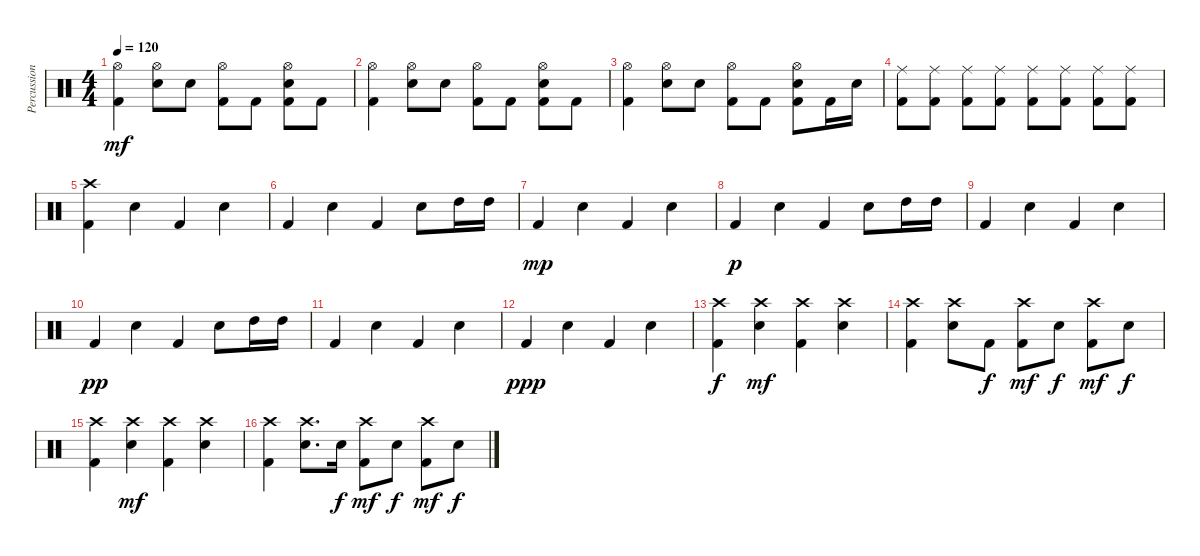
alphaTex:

\track ("Percussion" "Percussion") {instrument percussion}
\staff {score}
\articulation defaults
\ts (4 4)
\tempo 120
\clef neutral
\ks c
("Hi-Hat (open)" "Kick (hit) 2").4{dy mf} ("Hi-Hat (open)" "Snare (hit) 2").8 "Snare (hit) 2".8 ("Hi-Hat (open)" "Kick (hit) 2").8 "Kick (hit) 2".8 ("Hi-Hat (open)" "Snare (hit) 2" "Kick (hit) 2").8 "Kick (hit) 2".8 |
("Hi-Hat (open)" "Kick (hit) 2").4 ("Hi-Hat (open)" "Snare (hit) 2").8 "Snare (hit) 2".8 ("Hi-Hat (open)" "Kick (hit) 2").8 "Kick (hit) 2".8 ("Hi-Hat (open)" "Snare (hit) 2" "Kick (hit) 2").8 "Kick (hit) 2".8 |
("Hi-Hat (open)" "Kick (hit) 2").4 ("Hi-Hat (open)" "Snare (hit) 2").8 "Snare (hit) 2".8 ("Hi-Hat (open)" "Kick (hit) 2").8 "Kick (hit) 2".8 ("Hi-Hat (open)" "Snare (hit) 2" "Kick (hit) 2").8 "Kick (hit) 2".16 "Snare (hit) 2".16 |
("Ride (middle)" "Kick (hit) 2").8 ("Ride (middle)" "Kick (hit) 2").8 ("Ride (middle)" "Kick (hit) 2").8 ("Ride (middle)" "Kick (hit) 2").8 ("Ride (middle)" "Kick (hit) 2").8 ("Ride (middle)" "Kick (hit) 2").8 ("Ride (middle)" "Kick (hit) 2").8 ("Ride (middle)" "Kick (hit) 2").8 |
("Crash high (hit)" "Kick (hit) 2").4 "Snare (hit) 2".4 "Kick (hit) 2".4 "Snare (hit) 2".4 |
"Kick (hit) 2".4 "Snare (hit) 2".4 "Kick (hit) 2".4 "Snare (hit) 2".8 "High Tom (hit)".16 "High Tom (hit)".16 |
"Kick (hit) 2".4{dy mp} "Snare (hit) 2".4 "Kick (hit) 2".4 "Snare (hit) 2".4 |
"Kick (hit) 2".4{dy p} "Snare (hit) 2".4 "Kick (hit) 2".4 "Snare (hit) 2".8 "High Tom (hit)".16 "High Tom (hit)".16 |
"Kick (hit) 2".4 "Snare (hit) 2".4 "Kick (hit) 2".4 "Snare (hit) 2".4 |
"Kick (hit) 2".4{dy pp} "Snare (hit) 2".4 "Kick (hit) 2".4 "Snare (hit) 2".8 "High Tom (hit)".16 "High Tom (hit)".16 |
"Kick (hit) 2".4 "Snare (hit) 2".4 "Kick (hit) 2".4 "Snare (hit) 2".4 |
"Kick (hit) 2".4{dy ppp} "Snare (hit) 2".4 "Kick (hit) 2".4 "Snare (hit) 2".4 |
("Crash high (hit)" "Kick (hit) 2").4{dy f} ("Crash high (hit)" "Snare (hit) 2").4{dy mf} ("Crash high (hit)" "Kick (hit) 2").4 ("Crash high (hit)" "Snare (hit) 2").4 |
("Crash high (hit)" "Kick (hit) 2").4 ("Crash high (hit)" "Snare (hit) 2").8 "Kick (hit) 2".8{dy f} ("Crash high (hit)" "Kick (hit) 2").8{dy mf} "Snare (hit) 2".8{dy f} ("Crash high (hit)" "Kick (hit) 2").8{dy mf} "Snare (hit) 2".8{dy f} |
("Crash high (hit)" "Kick (hit) 2").4 ("Crash high (hit)" "Snare (hit) 2").4{dy mf} ("Crash high (hit)" "Kick (hit) 2").4 ("Crash high (hit)" "Snare (hit) 2").4 |
("Crash high (hit)" "Kick (hit) 2").4 ("Crash high (hit)" "Snare (hit) 2").8{d} "Snare (hit) 2".16{dy f} ("Crash high (hit)" "Kick (hit) 2").8{dy mf} "Snare (hit) 2".8{dy f} ("Crash high (hit)" "Kick (hit) 2").8{dy mf} "Snare (hit) 2".8{dy f}
